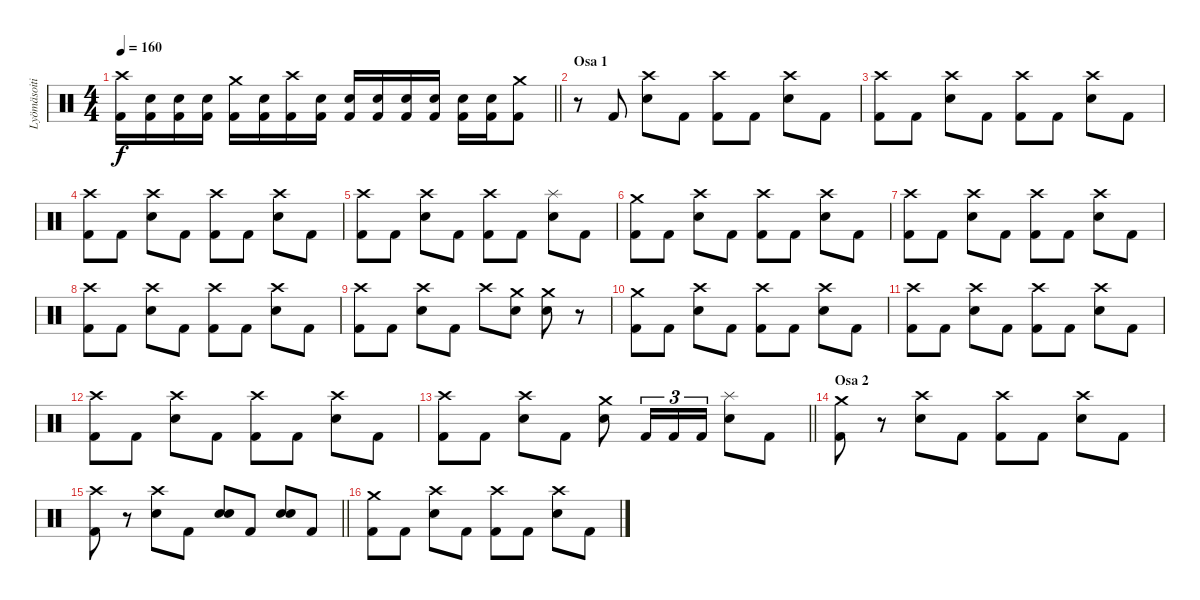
\track ("Lyömäsoitin" "Lyömäsoiti") {instrument percussion}
\staff {score}
\articulation defaults
\ts (4 4)
\tempo 160
\clef neutral
\barLineRight lightlight
\ks c
("Crash high (hit)" "Kick (hit) 2").16{dy f} ("Snare (hit) 2" "Kick (hit) 2").16 ("Snare (hit) 2" "Kick (hit) 2").16 ("Snare (hit) 2" "Kick (hit) 2").16 ("Crash medium (hit)" "Kick (hit) 2").16 ("Snare (hit) 2" "Kick (hit) 2").16 ("Crash high (hit)" "Kick (hit) 2").16 ("Snare (hit) 2" "Kick (hit) 2").16 ("Snare (hit) 2" "Kick (hit) 2").16 ("Snare (hit) 2" "Kick (hit) 2").16 ("Snare (hit) 2" "Kick (hit) 2").16 ("Snare (hit) 2" "Kick (hit) 2").16 ("Snare (hit) 2" "Kick (hit) 2").16 ("Snare (hit) 2" "Kick (hit) 2").16 ("Crash medium (hit)" "Kick (hit) 2").8 |
\section ("" "Osa 1")
r.8 "Kick (hit) 2".8 ("Crash high (hit)" "Snare (hit) 2").8 "Kick (hit) 2".8 ("Crash high (hit)" "Kick (hit) 2").8 "Kick (hit) 2".8 ("Crash high (hit)" "Snare (hit) 2").8 "Kick (hit) 2".8 |
("Crash high (hit)" "Kick (hit) 2").8 "Kick (hit) 2".8 ("Crash high (hit)" "Snare (hit) 2").8 "Kick (hit) 2".8 ("Crash high (hit)" "Kick (hit) 2").8 "Kick (hit) 2".8 ("Crash high (hit)" "Snare (hit) 2").8 "Kick (hit) 2".8 |
("Crash high (hit)" "Kick (hit) 2").8 "Kick (hit) 2".8 ("Crash high (hit)" "Snare (hit) 2").8 "Kick (hit) 2".8 ("Crash high (hit)" "Kick (hit) 2").8 "Kick (hit) 2".8 ("Crash high (hit)" "Snare (hit) 2").8 "Kick (hit) 2".8 |
("Crash high (hit)" "Kick (hit) 2").8 "Kick (hit) 2".8 ("Crash high (hit)" "Snare (hit) 2").8 "Kick (hit) 2".8 ("Crash high (hit)" "Kick (hit) 2").8 "Kick (hit) 2".8 ("Splash (hit)" "Snare (hit) 2").8 "Kick (hit) 2".8 |
("Crash medium (hit)" "Kick (hit) 2").8 "Kick (hit) 2".8 ("Crash high (hit)" "Snare (hit) 2").8 "Kick (hit) 2".8 ("Crash high (hit)" "Kick (hit) 2").8 "Kick (hit) 2".8 ("Crash high (hit)" "Snare (hit) 2").8 "Kick (hit) 2".8 |
("Crash high (hit)" "Kick (hit) 2").8 "Kick (hit) 2".8 ("Crash high (hit)" "Snare (hit) 2").8 "Kick (hit) 2".8 ("Crash high (hit)" "Kick (hit) 2").8 "Kick (hit) 2".8 ("Crash high (hit)" "Snare (hit) 2").8 "Kick (hit) 2".8 |
("Crash high (hit)" "Kick (hit) 2").8 "Kick (hit) 2".8 ("Crash high (hit)" "Snare (hit) 2").8 "Kick (hit) 2".8 ("Crash high (hit)" "Kick (hit) 2").8 "Kick (hit) 2".8 ("Crash high (hit)" "Snare (hit) 2").8 "Kick (hit) 2".8 |
("Crash high (hit)" "Kick (hit) 2").8 "Kick (hit) 2".8 ("Crash high (hit)" "Snare (hit) 2").8 "Kick (hit) 2".8 "Crash high (hit)".8 ("Crash medium (hit)" "Snare (hit) 2").8 ("Crash medium (hit)" "Snare (hit) 2").8 r.8 |
("Crash medium (hit)" "Kick (hit) 2").8 "Kick (hit) 2".8 ("Crash high (hit)" "Snare (hit) 2").8 "Kick (hit) 2".8 ("Crash high (hit)" "Kick (hit) 2").8 "Kick (hit) 2".8 ("Crash high (hit)" "Snare (hit) 2").8 "Kick (hit) 2".8 |
("Crash high (hit)" "Kick (hit) 2").8 "Kick (hit) 2".8 ("Crash high (hit)" "Snare (hit) 2").8 "Kick (hit) 2".8 ("Crash high (hit)" "Kick (hit) 2").8 "Kick (hit) 2".8 ("Crash high (hit)" "Snare (hit) 2").8 "Kick (hit) 2".8 |
("Crash high (hit)" "Kick (hit) 2").8 "Kick (hit) 2".8 ("Crash high (hit)" "Snare (hit) 2").8 "Kick (hit) 2".8 ("Crash high (hit)" "Kick (hit) 2").8 "Kick (hit) 2".8 ("Crash high (hit)" "Snare (hit) 2").8 "Kick (hit) 2".8 |
\barLineRight lightlight
("Crash high (hit)" "Kick (hit) 2").8 "Kick (hit) 2".8 ("Crash high (hit)" "Snare (hit) 2").8 "Kick (hit) 2".8 ("Crash medium (hit)" "Snare (hit) 2").8 "Kick (hit) 2".16{tu (3 2)} "Kick (hit) 2".16{tu (3 2)} "Kick (hit) 2".16{tu (3 2)} ("Splash (hit)" "Snare (hit) 2").8 "Kick (hit) 2".8 |
\section ("" "Osa 2")
("Crash medium (hit)" "Kick (hit) 2").8 r.8 ("Crash high (hit)" "Snare (hit) 2").8 "Kick (hit) 2".8 ("Crash high (hit)" "Kick (hit) 2").8 "Kick (hit) 2".8 ("Crash high (hit)" "Snare (hit) 2").8 "Kick (hit) 2".8 |
\barLineRight lightlight
("Crash high (hit)" "Kick (hit) 2").8 r.8 ("Crash high (hit)" "Snare (hit) 2").8 "Kick (hit) 2".8 ("Snare (hit) 2" "Snare (hit) 2").8 "Kick (hit) 2".8 ("Snare (hit) 2" "Snare (hit) 2").8 "Kick (hit) 2".8 |
("Crash medium (hit)" "Kick (hit) 2").8 "Kick (hit) 2".8 ("Crash high (hit)" "Snare (hit) 2").8 "Kick (hit) 2".8 ("Crash high (hit)" "Kick (hit) 2").8 "Kick (hit) 2".8 ("Crash high (hit)" "Snare (hit) 2").8 "Kick (hit) 2".8
